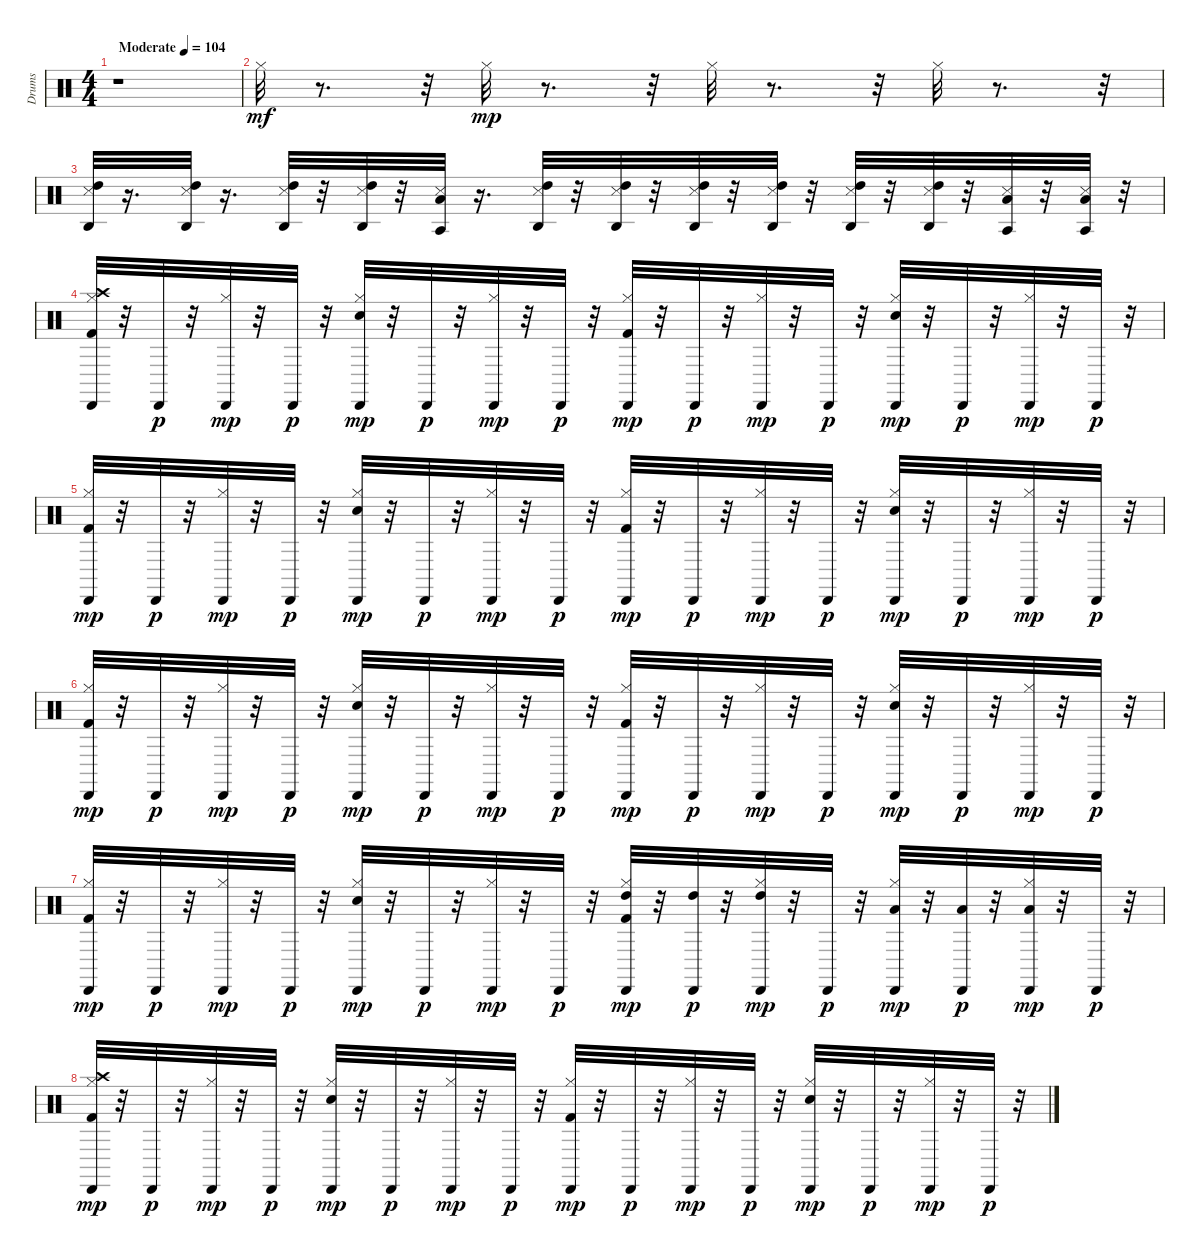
\track ("Drums               " "Drums     ") {instrument percussion}
\staff {score}
\articulation defaults
\ts (4 4)
\tempo (104 "Moderate")
\clef neutral
\ks c
r.1{dy mf} |
"Hi-Hat (closed)".32 r.8{d} r.32 "Hi-Hat (closed)".32{dy mp} r.8{d} r.32 "Hi-Hat (closed)".32 r.8{d} r.32 "Hi-Hat (closed)".32 r.8{d} r.32 |
("Snare (side stick) 3" "High Tom (hit)" "Agogo high (hit)").32 r.16{d} ("Snare (side stick) 3" "High Tom (hit)" "Agogo high (hit)").32 r.16{d} ("Snare (side stick) 3" "High Tom (hit)" "Agogo high (hit)").32 r.32 ("Snare (side stick) 3" "High Tom (hit)" "Agogo high (hit)").32 r.32 ("Snare (side stick) 3" "Low Floor Tom (hit)" "Agogo tow (hit)").32 r.16{d} ("Snare (side stick) 3" "High Tom (hit)" "Agogo high (hit)").32 r.32 ("Snare (side stick) 3" "High Tom (hit)" "Agogo high (hit)").32 r.32 ("Snare (side stick) 3" "High Tom (hit)" "Agogo high (hit)").32 r.32 ("Snare (side stick) 3" "High Tom (hit)" "Agogo high (hit)").32 r.32 ("Snare (side stick) 3" "High Tom (hit)" "Agogo high (hit)").32 r.32 ("Snare (side stick) 3" "High Tom (hit)" "Agogo high (hit)").32 r.32 ("Snare (side stick) 3" "Low Floor Tom (hit)" "Agogo tow (hit)").32 r.32 ("Snare (side stick) 3" "Low Floor Tom (hit)" "Agogo tow (hit)").32 r.32 |
("Kick (hit) 2" "Hi-Hat (closed)" "Crash high (hit)" "Cabasa (hit)").32 r.32 "Cabasa (hit)".32{dy p} r.32 ("Hi-Hat (closed)" "Cabasa (hit)").32{dy mp} r.32 "Cabasa (hit)".32{dy p} r.32 ("Snare (hit) 2" "Hi-Hat (closed)" "Cabasa (hit)").32{dy mp} r.32 "Cabasa (hit)".32{dy p} r.32 ("Hi-Hat (closed)" "Cabasa (hit)").32{dy mp} r.32 "Cabasa (hit)".32{dy p} r.32 ("Kick (hit) 2" "Hi-Hat (closed)" "Cabasa (hit)").32{dy mp} r.32 "Cabasa (hit)".32{dy p} r.32 ("Hi-Hat (closed)" "Cabasa (hit)").32{dy mp} r.32 "Cabasa (hit)".32{dy p} r.32 ("Snare (hit) 2" "Hi-Hat (closed)" "Cabasa (hit)").32{dy mp} r.32 "Cabasa (hit)".32{dy p} r.32 ("Hi-Hat (closed)" "Cabasa (hit)").32{dy mp} r.32 "Cabasa (hit)".32{dy p} r.32 |
("Kick (hit) 2" "Hi-Hat (closed)" "Cabasa (hit)").32{dy mp} r.32 "Cabasa (hit)".32{dy p} r.32 ("Hi-Hat (closed)" "Cabasa (hit)").32{dy mp} r.32 "Cabasa (hit)".32{dy p} r.32 ("Snare (hit) 2" "Hi-Hat (closed)" "Cabasa (hit)").32{dy mp} r.32 "Cabasa (hit)".32{dy p} r.32 ("Hi-Hat (closed)" "Cabasa (hit)").32{dy mp} r.32 "Cabasa (hit)".32{dy p} r.32 ("Kick (hit) 2" "Hi-Hat (closed)" "Cabasa (hit)").32{dy mp} r.32 "Cabasa (hit)".32{dy p} r.32 ("Hi-Hat (closed)" "Cabasa (hit)").32{dy mp} r.32 "Cabasa (hit)".32{dy p} r.32 ("Snare (hit) 2" "Hi-Hat (closed)" "Cabasa (hit)").32{dy mp} r.32 "Cabasa (hit)".32{dy p} r.32 ("Hi-Hat (closed)" "Cabasa (hit)").32{dy mp} r.32 "Cabasa (hit)".32{dy p} r.32 |
("Kick (hit) 2" "Hi-Hat (closed)" "Cabasa (hit)").32{dy mp} r.32 "Cabasa (hit)".32{dy p} r.32 ("Hi-Hat (closed)" "Cabasa (hit)").32{dy mp} r.32 "Cabasa (hit)".32{dy p} r.32 ("Snare (hit) 2" "Hi-Hat (closed)" "Cabasa (hit)").32{dy mp} r.32 "Cabasa (hit)".32{dy p} r.32 ("Hi-Hat (closed)" "Cabasa (hit)").32{dy mp} r.32 "Cabasa (hit)".32{dy p} r.32 ("Kick (hit) 2" "Hi-Hat (closed)" "Cabasa (hit)").32{dy mp} r.32 "Cabasa (hit)".32{dy p} r.32 ("Hi-Hat (closed)" "Cabasa (hit)").32{dy mp} r.32 "Cabasa (hit)".32{dy p} r.32 ("Snare (hit) 2" "Hi-Hat (closed)" "Cabasa (hit)").32{dy mp} r.32 "Cabasa (hit)".32{dy p} r.32 ("Hi-Hat (closed)" "Cabasa (hit)").32{dy mp} r.32 "Cabasa (hit)".32{dy p} r.32 |
("Kick (hit) 2" "Hi-Hat (closed)" "Cabasa (hit)").32{dy mp} r.32 "Cabasa (hit)".32{dy p} r.32 ("Hi-Hat (closed)" "Cabasa (hit)").32{dy mp} r.32 "Cabasa (hit)".32{dy p} r.32 ("Snare (hit) 2" "Hi-Hat (closed)" "Cabasa (hit)").32{dy mp} r.32 "Cabasa (hit)".32{dy p} r.32 ("Hi-Hat (closed)" "Cabasa (hit)").32{dy mp} r.32 "Cabasa (hit)".32{dy p} r.32 ("Kick (hit) 2" "Hi-Hat (closed)" "High Tom (hit)" "Cabasa (hit)").32{dy mp} r.32 ("High Tom (hit)" "Cabasa (hit)").32{dy p} r.32 ("Hi-Hat (closed)" "High Tom (hit)" "Cabasa (hit)").32{dy mp} r.32 "Cabasa (hit)".32{dy p} r.32 ("Hi-Hat (closed)" "Low Tom (hit)" "Cabasa (hit)").32{dy mp} r.32 ("Low Tom (hit)" "Cabasa (hit)").32{dy p} r.32 ("Hi-Hat (closed)" "Low Tom (hit)" "Cabasa (hit)").32{dy mp} r.32 "Cabasa (hit)".32{dy p} r.32 |
("Kick (hit) 2" "Hi-Hat (closed)" "Crash high (hit)" "Cabasa (hit)").32{dy mp} r.32 "Cabasa (hit)".32{dy p} r.32 ("Hi-Hat (closed)" "Cabasa (hit)").32{dy mp} r.32 "Cabasa (hit)".32{dy p} r.32 ("Snare (hit) 2" "Hi-Hat (closed)" "Cabasa (hit)").32{dy mp} r.32 "Cabasa (hit)".32{dy p} r.32 ("Hi-Hat (closed)" "Cabasa (hit)").32{dy mp} r.32 "Cabasa (hit)".32{dy p} r.32 ("Kick (hit) 2" "Hi-Hat (closed)" "Cabasa (hit)").32{dy mp} r.32 "Cabasa (hit)".32{dy p} r.32 ("Hi-Hat (closed)" "Cabasa (hit)").32{dy mp} r.32 "Cabasa (hit)".32{dy p} r.32 ("Snare (hit) 2" "Hi-Hat (closed)" "Cabasa (hit)").32{dy mp} r.32 "Cabasa (hit)".32{dy p} r.32 ("Hi-Hat (closed)" "Cabasa (hit)").32{dy mp} r.32 "Cabasa (hit)".32{dy p} r.32
